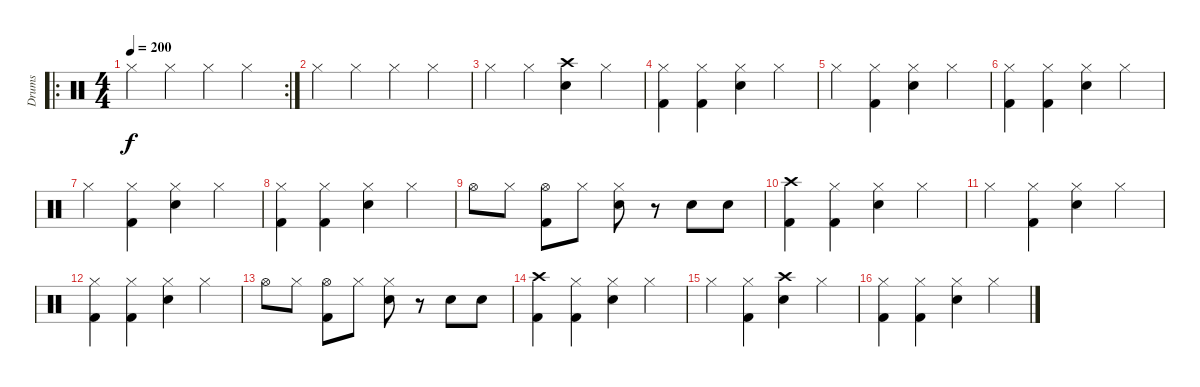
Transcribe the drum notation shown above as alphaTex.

\track ("Drums" "Drums") {instrument percussion}
\staff {score}
\articulation defaults
\ro
\rc 2
\ts (4 4)
\tempo 200
\clef neutral
\ks c "Hi-Hat (closed)".4{dy f} "Hi-Hat (closed)".4 "Hi-Hat (closed)".4 "Hi-Hat (closed)".4
|
"Hi-Hat (closed)".4 "Hi-Hat (closed)".4 "Hi-Hat (closed)".4 "Hi-Hat (closed)".4 |
"Hi-Hat (closed)".4 "Hi-Hat (closed)".4 ("Crash high (hit)" "Electric Snare (hit)").4 "Hi-Hat (closed)".4 |
("Hi-Hat (closed)" "Kick (hit) 2").4 ("Hi-Hat (closed)" "Kick (hit) 2").4 ("Hi-Hat (closed)" "Electric Snare (hit)").4 "Hi-Hat (closed)".4 |
"Hi-Hat (closed)".4 ("Hi-Hat (closed)" "Kick (hit) 2").4 ("Hi-Hat (closed)" "Electric Snare (hit)").4 "Hi-Hat (closed)".4 |
("Hi-Hat (closed)" "Kick (hit) 2").4 ("Hi-Hat (closed)" "Kick (hit) 2").4 ("Hi-Hat (closed)" "Electric Snare (hit)").4 "Hi-Hat (closed)".4 |
"Hi-Hat (closed)".4 ("Hi-Hat (closed)" "Kick (hit) 2").4 ("Hi-Hat (closed)" "Electric Snare (hit)").4 "Hi-Hat (closed)".4 |
("Hi-Hat (closed)" "Kick (hit) 2").4 ("Hi-Hat (closed)" "Kick (hit) 2").4 ("Hi-Hat (closed)" "Electric Snare (hit)").4 "Hi-Hat (closed)".4 |
"Hi-Hat (open)".8 "Hi-Hat (closed)".8 ("Hi-Hat (open)" "Kick (hit) 2").8 "Hi-Hat (closed)".8 ("Hi-Hat (closed)" "Electric Snare (hit)").8 r.8 "Electric Snare (hit)".8 "Electric Snare (hit)".8 |
("Crash high (hit)" "Kick (hit) 2").4 ("Hi-Hat (closed)" "Kick (hit) 2").4 ("Hi-Hat (closed)" "Electric Snare (hit)").4 "Hi-Hat (closed)".4 |
"Hi-Hat (closed)".4 ("Hi-Hat (closed)" "Kick (hit) 2").4 ("Hi-Hat (closed)" "Electric Snare (hit)").4 "Hi-Hat (closed)".4 |
("Hi-Hat (closed)" "Kick (hit) 2").4 ("Hi-Hat (closed)" "Kick (hit) 2").4 ("Hi-Hat (closed)" "Electric Snare (hit)").4 "Hi-Hat (closed)".4 |
"Hi-Hat (open)".8 "Hi-Hat (closed)".8 ("Hi-Hat (open)" "Kick (hit) 2").8 "Hi-Hat (closed)".8 ("Hi-Hat (closed)" "Electric Snare (hit)").8 r.8 "Electric Snare (hit)".8 "Electric Snare (hit)".8 |
("Crash high (hit)" "Kick (hit) 2").4 ("Hi-Hat (closed)" "Kick (hit) 2").4 ("Hi-Hat (closed)" "Electric Snare (hit)").4 "Hi-Hat (closed)".4 |
"Hi-Hat (closed)".4 ("Hi-Hat (closed)" "Kick (hit) 2").4 ("Crash high (hit)" "Electric Snare (hit)").4 "Hi-Hat (closed)".4 |
("Hi-Hat (closed)" "Kick (hit) 2").4 ("Hi-Hat (closed)" "Kick (hit) 2").4 ("Hi-Hat (closed)" "Electric Snare (hit)").4 "Hi-Hat (closed)".4
